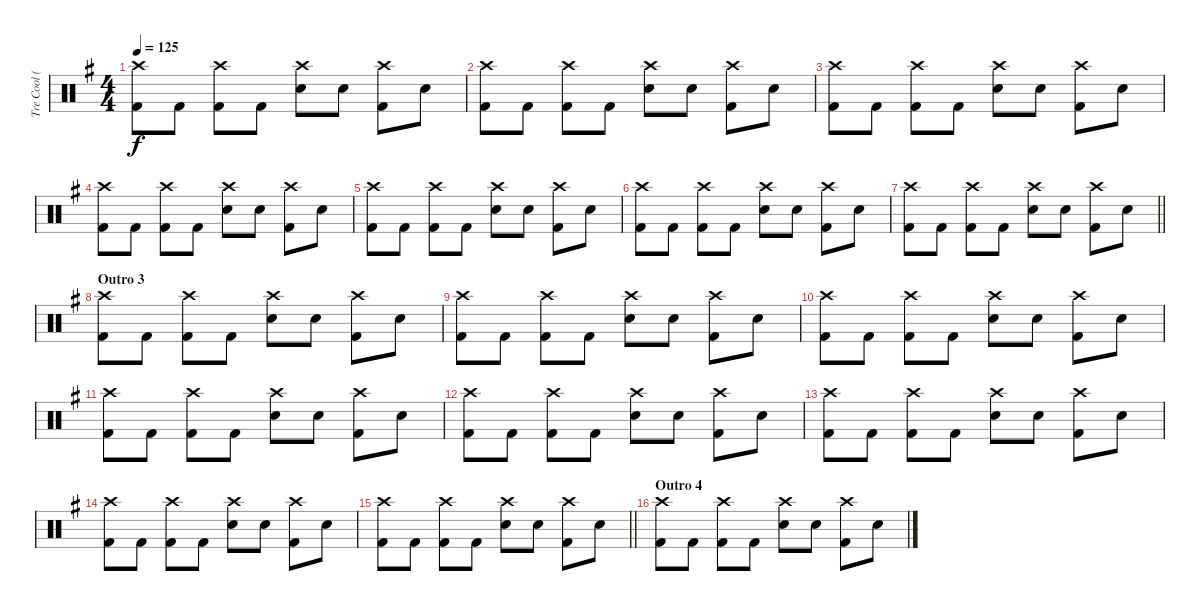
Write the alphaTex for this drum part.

\track ("Tre Cool (Drums)" "Tre Cool (") {instrument percussion}
\staff {score}
\articulation defaults
\ts (4 4)
\tempo 125
\clef neutral
\ks g
("Crash high (hit)" "Kick (hit) 2").8{dy f} "Kick (hit) 2".8 ("Crash high (hit)" "Kick (hit) 2").8 "Kick (hit) 2".8 ("Crash high (hit)" "Electric Snare (hit)").8 "Electric Snare (hit)".8 ("Crash high (hit)" "Kick (hit) 2").8 "Electric Snare (hit)".8 |
("Crash high (hit)" "Kick (hit) 2").8 "Kick (hit) 2".8 ("Crash high (hit)" "Kick (hit) 2").8 "Kick (hit) 2".8 ("Crash high (hit)" "Electric Snare (hit)").8 "Electric Snare (hit)".8 ("Crash high (hit)" "Kick (hit) 2").8 "Electric Snare (hit)".8 |
("Crash high (hit)" "Kick (hit) 2").8 "Kick (hit) 2".8 ("Crash high (hit)" "Kick (hit) 2").8 "Kick (hit) 2".8 ("Crash high (hit)" "Electric Snare (hit)").8 "Electric Snare (hit)".8 ("Crash high (hit)" "Kick (hit) 2").8 "Electric Snare (hit)".8 |
("Crash high (hit)" "Kick (hit) 2").8 "Kick (hit) 2".8 ("Crash high (hit)" "Kick (hit) 2").8 "Kick (hit) 2".8 ("Crash high (hit)" "Electric Snare (hit)").8 "Electric Snare (hit)".8 ("Crash high (hit)" "Kick (hit) 2").8 "Electric Snare (hit)".8 |
("Crash high (hit)" "Kick (hit) 2").8 "Kick (hit) 2".8 ("Crash high (hit)" "Kick (hit) 2").8 "Kick (hit) 2".8 ("Crash high (hit)" "Electric Snare (hit)").8 "Electric Snare (hit)".8 ("Crash high (hit)" "Kick (hit) 2").8 "Electric Snare (hit)".8 |
("Crash high (hit)" "Kick (hit) 2").8 "Kick (hit) 2".8 ("Crash high (hit)" "Kick (hit) 2").8 "Kick (hit) 2".8 ("Crash high (hit)" "Electric Snare (hit)").8 "Electric Snare (hit)".8 ("Crash high (hit)" "Kick (hit) 2").8 "Electric Snare (hit)".8 |
\barLineRight lightlight
("Crash high (hit)" "Kick (hit) 2").8 "Kick (hit) 2".8 ("Crash high (hit)" "Kick (hit) 2").8 "Kick (hit) 2".8 ("Crash high (hit)" "Electric Snare (hit)").8 "Electric Snare (hit)".8 ("Crash high (hit)" "Kick (hit) 2").8 "Electric Snare (hit)".8 |
\section ("" "Outro 3")
("Crash high (hit)" "Kick (hit) 2").8 "Kick (hit) 2".8 ("Crash high (hit)" "Kick (hit) 2").8 "Kick (hit) 2".8 ("Crash high (hit)" "Electric Snare (hit)").8 "Electric Snare (hit)".8 ("Crash high (hit)" "Kick (hit) 2").8 "Electric Snare (hit)".8 |
("Crash high (hit)" "Kick (hit) 2").8 "Kick (hit) 2".8 ("Crash high (hit)" "Kick (hit) 2").8 "Kick (hit) 2".8 ("Crash high (hit)" "Electric Snare (hit)").8 "Electric Snare (hit)".8 ("Crash high (hit)" "Kick (hit) 2").8 "Electric Snare (hit)".8 |
("Crash high (hit)" "Kick (hit) 2").8 "Kick (hit) 2".8 ("Crash high (hit)" "Kick (hit) 2").8 "Kick (hit) 2".8 ("Crash high (hit)" "Electric Snare (hit)").8 "Electric Snare (hit)".8 ("Crash high (hit)" "Kick (hit) 2").8 "Electric Snare (hit)".8 |
("Crash high (hit)" "Kick (hit) 2").8 "Kick (hit) 2".8 ("Crash high (hit)" "Kick (hit) 2").8 "Kick (hit) 2".8 ("Crash high (hit)" "Electric Snare (hit)").8 "Electric Snare (hit)".8 ("Crash high (hit)" "Kick (hit) 2").8 "Electric Snare (hit)".8 |
("Crash high (hit)" "Kick (hit) 2").8 "Kick (hit) 2".8 ("Crash high (hit)" "Kick (hit) 2").8 "Kick (hit) 2".8 ("Crash high (hit)" "Electric Snare (hit)").8 "Electric Snare (hit)".8 ("Crash high (hit)" "Kick (hit) 2").8 "Electric Snare (hit)".8 |
("Crash high (hit)" "Kick (hit) 2").8 "Kick (hit) 2".8 ("Crash high (hit)" "Kick (hit) 2").8 "Kick (hit) 2".8 ("Crash high (hit)" "Electric Snare (hit)").8 "Electric Snare (hit)".8 ("Crash high (hit)" "Kick (hit) 2").8 "Electric Snare (hit)".8 |
("Crash high (hit)" "Kick (hit) 2").8 "Kick (hit) 2".8 ("Crash high (hit)" "Kick (hit) 2").8 "Kick (hit) 2".8 ("Crash high (hit)" "Electric Snare (hit)").8 "Electric Snare (hit)".8 ("Crash high (hit)" "Kick (hit) 2").8 "Electric Snare (hit)".8 |
\barLineRight lightlight
("Crash high (hit)" "Kick (hit) 2").8 "Kick (hit) 2".8 ("Crash high (hit)" "Kick (hit) 2").8 "Kick (hit) 2".8 ("Crash high (hit)" "Electric Snare (hit)").8 "Electric Snare (hit)".8 ("Crash high (hit)" "Kick (hit) 2").8 "Electric Snare (hit)".8 |
\section ("" "Outro 4")
("Crash high (hit)" "Kick (hit) 2").8 "Kick (hit) 2".8 ("Crash high (hit)" "Kick (hit) 2").8 "Kick (hit) 2".8 ("Crash high (hit)" "Electric Snare (hit)").8 "Electric Snare (hit)".8 ("Crash high (hit)" "Kick (hit) 2").8 "Electric Snare (hit)".8
